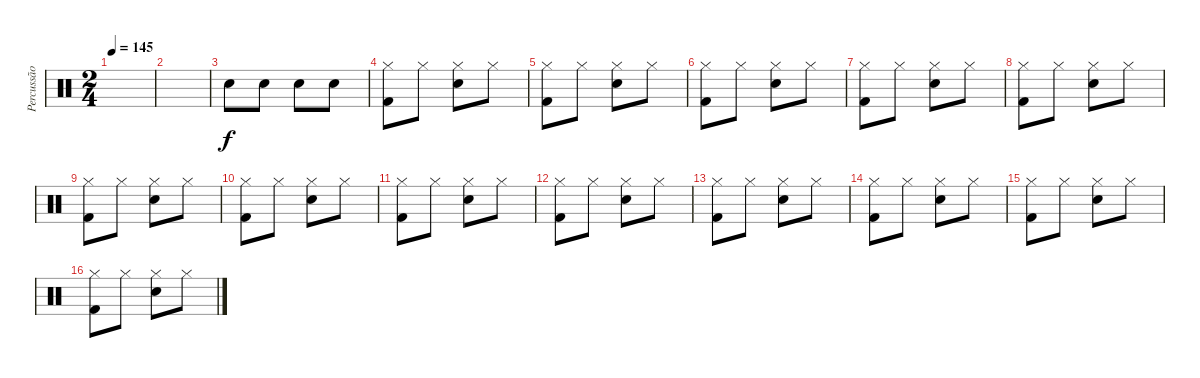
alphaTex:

\track ("Percussão" "Percussão") {instrument percussion}
\staff {score}
\articulation defaults
\ts (2 4)
\tempo 145
\clef neutral
\ks c
|
|
"Snare (hit) 2".8 "Snare (hit) 2".8 "Snare (hit) 2".8 "Snare (hit) 2".8 |
("Hi-Hat (closed)" "Kick (hit) 2").8 "Hi-Hat (closed)".8 ("Hi-Hat (closed)" "Snare (hit) 2").8 "Hi-Hat (closed)".8 |
("Hi-Hat (closed)" "Kick (hit) 2").8 "Hi-Hat (closed)".8 ("Hi-Hat (closed)" "Snare (hit) 2").8 "Hi-Hat (closed)".8 |
("Hi-Hat (closed)" "Kick (hit) 2").8 "Hi-Hat (closed)".8 ("Hi-Hat (closed)" "Snare (hit) 2").8 "Hi-Hat (closed)".8 |
("Hi-Hat (closed)" "Kick (hit) 2").8 "Hi-Hat (closed)".8 ("Hi-Hat (closed)" "Snare (hit) 2").8 "Hi-Hat (closed)".8 |
("Hi-Hat (closed)" "Kick (hit) 2").8 "Hi-Hat (closed)".8 ("Hi-Hat (closed)" "Snare (hit) 2").8 "Hi-Hat (closed)".8 |
("Hi-Hat (closed)" "Kick (hit) 2").8 "Hi-Hat (closed)".8 ("Hi-Hat (closed)" "Snare (hit) 2").8 "Hi-Hat (closed)".8 |
("Hi-Hat (closed)" "Kick (hit) 2").8 "Hi-Hat (closed)".8 ("Hi-Hat (closed)" "Snare (hit) 2").8 "Hi-Hat (closed)".8 |
("Hi-Hat (closed)" "Kick (hit) 2").8 "Hi-Hat (closed)".8 ("Hi-Hat (closed)" "Snare (hit) 2").8 "Hi-Hat (closed)".8 |
("Hi-Hat (closed)" "Kick (hit) 2").8 "Hi-Hat (closed)".8 ("Hi-Hat (closed)" "Snare (hit) 2").8 "Hi-Hat (closed)".8 |
("Hi-Hat (closed)" "Kick (hit) 2").8 "Hi-Hat (closed)".8 ("Hi-Hat (closed)" "Snare (hit) 2").8 "Hi-Hat (closed)".8 |
("Hi-Hat (closed)" "Kick (hit) 2").8 "Hi-Hat (closed)".8 ("Hi-Hat (closed)" "Snare (hit) 2").8 "Hi-Hat (closed)".8 |
("Hi-Hat (closed)" "Kick (hit) 2").8 "Hi-Hat (closed)".8 ("Hi-Hat (closed)" "Snare (hit) 2").8 "Hi-Hat (closed)".8 |
("Hi-Hat (closed)" "Kick (hit) 2").8 "Hi-Hat (closed)".8 ("Hi-Hat (closed)" "Snare (hit) 2").8 "Hi-Hat (closed)".8
